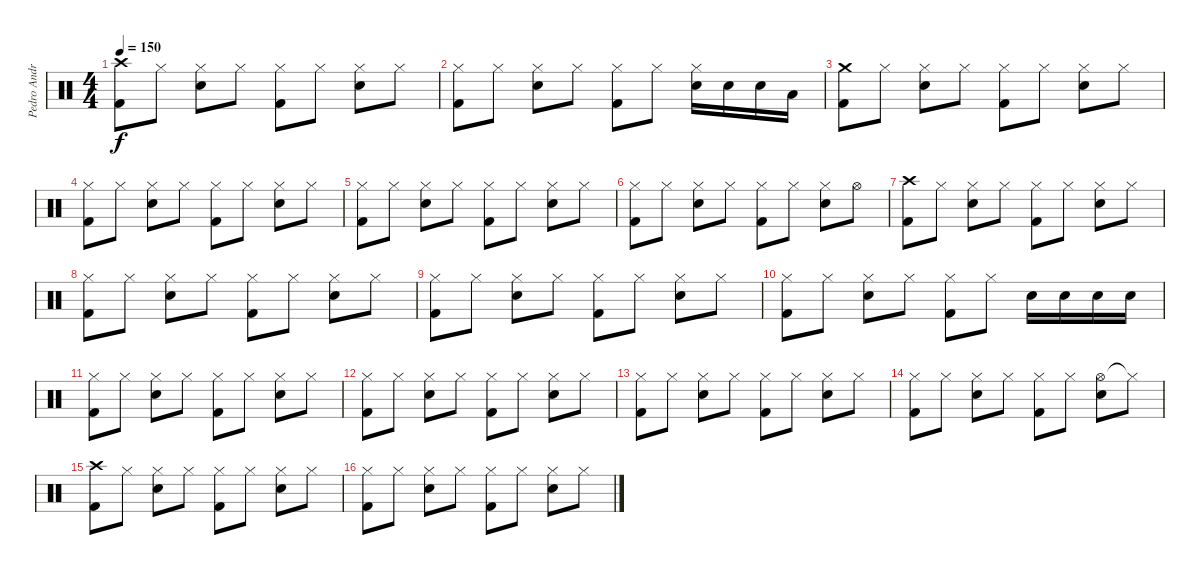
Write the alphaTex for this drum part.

\track ("Pedro Andreu" "Pedro Andr") {instrument percussion}
\staff {score}
\articulation defaults
\ts (4 4)
\tempo 150
\clef neutral
\ks c
("Crash high (hit)" "Kick (hit) 2").8{dy f} "Hi-Hat (closed)".8 ("Hi-Hat (closed)" "Snare (hit) 2").8 "Hi-Hat (closed)".8 ("Hi-Hat (closed)" "Kick (hit) 2").8 "Hi-Hat (closed)".8 ("Hi-Hat (closed)" "Snare (hit) 2").8 "Hi-Hat (closed)".8 |
("Hi-Hat (closed)" "Kick (hit) 2").8 "Hi-Hat (closed)".8 ("Hi-Hat (closed)" "Snare (hit) 2").8 "Hi-Hat (closed)".8 ("Hi-Hat (closed)" "Kick (hit) 2").8 "Hi-Hat (closed)".8 ("Hi-Hat (closed)" "Snare (hit) 2").16 "Snare (hit) 2".16 "Snare (hit) 2".16 "Low Tom (hit)".16 |
("Crash medium (hit)" "Kick (hit) 2").8 "Hi-Hat (closed)".8 ("Hi-Hat (closed)" "Snare (hit) 2").8 "Hi-Hat (closed)".8 ("Hi-Hat (closed)" "Kick (hit) 2").8 "Hi-Hat (closed)".8 ("Hi-Hat (closed)" "Snare (hit) 2").8 "Hi-Hat (closed)".8 |
("Hi-Hat (closed)" "Kick (hit) 2").8 "Hi-Hat (closed)".8 ("Hi-Hat (closed)" "Snare (hit) 2").8 "Hi-Hat (closed)".8 ("Hi-Hat (closed)" "Kick (hit) 2").8 "Hi-Hat (closed)".8 ("Hi-Hat (closed)" "Snare (hit) 2").8 "Hi-Hat (closed)".8 |
("Hi-Hat (closed)" "Kick (hit) 2").8 "Hi-Hat (closed)".8 ("Hi-Hat (closed)" "Snare (hit) 2").8 "Hi-Hat (closed)".8 ("Hi-Hat (closed)" "Kick (hit) 2").8 "Hi-Hat (closed)".8 ("Hi-Hat (closed)" "Snare (hit) 2").8 "Hi-Hat (closed)".8 |
("Hi-Hat (closed)" "Kick (hit) 2").8 "Hi-Hat (closed)".8 ("Hi-Hat (closed)" "Snare (hit) 2").8 "Hi-Hat (closed)".8 ("Hi-Hat (closed)" "Kick (hit) 2").8 "Hi-Hat (closed)".8 ("Hi-Hat (closed)" "Snare (hit) 2").8 "Hi-Hat (open)".8 |
("Crash high (hit)" "Kick (hit) 2").8 "Hi-Hat (closed)".8 ("Hi-Hat (closed)" "Snare (hit) 2").8 "Hi-Hat (closed)".8 ("Hi-Hat (closed)" "Kick (hit) 2").8 "Hi-Hat (closed)".8 ("Hi-Hat (closed)" "Snare (hit) 2").8 "Hi-Hat (closed)".8 |
("Hi-Hat (closed)" "Kick (hit) 2").8 "Hi-Hat (closed)".8 ("Hi-Hat (closed)" "Snare (hit) 2").8 "Hi-Hat (closed)".8 ("Hi-Hat (closed)" "Kick (hit) 2").8 "Hi-Hat (closed)".8 ("Hi-Hat (closed)" "Snare (hit) 2").8 "Hi-Hat (closed)".8 |
("Hi-Hat (closed)" "Kick (hit) 2").8 "Hi-Hat (closed)".8 ("Hi-Hat (closed)" "Snare (hit) 2").8 "Hi-Hat (closed)".8 ("Hi-Hat (closed)" "Kick (hit) 2").8 "Hi-Hat (closed)".8 ("Hi-Hat (closed)" "Snare (hit) 2").8 "Hi-Hat (closed)".8 |
("Hi-Hat (closed)" "Kick (hit) 2").8 "Hi-Hat (closed)".8 ("Hi-Hat (closed)" "Snare (hit) 2").8 "Hi-Hat (closed)".8 ("Hi-Hat (closed)" "Kick (hit) 2").8 "Hi-Hat (closed)".8 "Snare (hit) 2".16 "Snare (hit) 2".16 "Snare (hit) 2".16 "Snare (hit) 2".16 |
("Hi-Hat (closed)" "Kick (hit) 2").8 "Hi-Hat (closed)".8 ("Hi-Hat (closed)" "Snare (hit) 2").8 "Hi-Hat (closed)".8 ("Hi-Hat (closed)" "Kick (hit) 2").8 "Hi-Hat (closed)".8 ("Hi-Hat (closed)" "Snare (hit) 2").8 "Hi-Hat (closed)".8 |
("Hi-Hat (closed)" "Kick (hit) 2").8 "Hi-Hat (closed)".8 ("Hi-Hat (closed)" "Snare (hit) 2").8 "Hi-Hat (closed)".8 ("Hi-Hat (closed)" "Kick (hit) 2").8 "Hi-Hat (closed)".8 ("Hi-Hat (closed)" "Snare (hit) 2").8 "Hi-Hat (closed)".8 |
("Hi-Hat (closed)" "Kick (hit) 2").8 "Hi-Hat (closed)".8 ("Hi-Hat (closed)" "Snare (hit) 2").8 "Hi-Hat (closed)".8 ("Hi-Hat (closed)" "Kick (hit) 2").8 "Hi-Hat (closed)".8 ("Hi-Hat (closed)" "Snare (hit) 2").8 "Hi-Hat (closed)".8 |
("Hi-Hat (closed)" "Kick (hit) 2").8 "Hi-Hat (closed)".8 ("Hi-Hat (closed)" "Snare (hit) 2").8 "Hi-Hat (closed)".8 ("Hi-Hat (closed)" "Kick (hit) 2").8 "Hi-Hat (closed)".8 ("Hi-Hat (open)" "Snare (hit) 2").8 "Hi-Hat (closed)"{t}.8 |
("Crash high (hit)" "Kick (hit) 2").8 "Hi-Hat (closed)".8 ("Hi-Hat (closed)" "Snare (hit) 2").8 "Hi-Hat (closed)".8 ("Hi-Hat (closed)" "Kick (hit) 2").8 "Hi-Hat (closed)".8 ("Hi-Hat (closed)" "Snare (hit) 2").8 "Hi-Hat (closed)".8 |
("Hi-Hat (closed)" "Kick (hit) 2").8 "Hi-Hat (closed)".8 ("Hi-Hat (closed)" "Snare (hit) 2").8 "Hi-Hat (closed)".8 ("Hi-Hat (closed)" "Kick (hit) 2").8 "Hi-Hat (closed)".8 ("Hi-Hat (closed)" "Snare (hit) 2").8 "Hi-Hat (closed)".8
